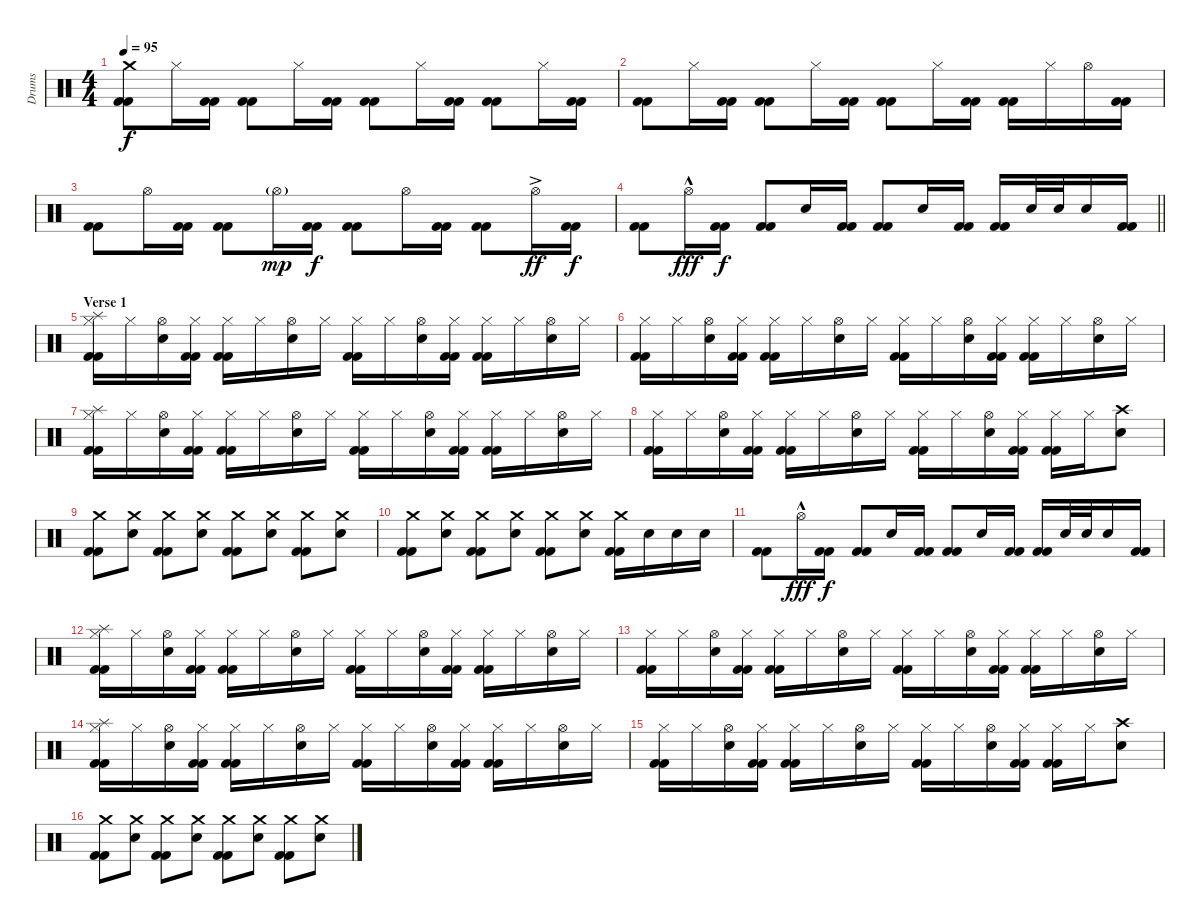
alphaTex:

\track ("Drums" "Drums") {instrument percussion}
\staff {score}
\articulation defaults
\ts (4 4)
\tempo 95
\clef neutral
\ks c
("Crash medium (hit)" "Kick (hit) 2" "Kick (hit) 2").8{dy f} "Hi-Hat (closed)".16 ("Kick (hit) 2" "Kick (hit) 2").16 ("Kick (hit) 2" "Kick (hit) 2").8 "Hi-Hat (closed)".16 ("Kick (hit) 2" "Kick (hit) 2").16 ("Kick (hit) 2" "Kick (hit) 2").8 "Hi-Hat (closed)".16 ("Kick (hit) 2" "Kick (hit) 2").16 ("Kick (hit) 2" "Kick (hit) 2").8 "Hi-Hat (closed)".16 ("Kick (hit) 2" "Kick (hit) 2").16 |
("Kick (hit) 2" "Kick (hit) 2").8 "Hi-Hat (closed)".16 ("Kick (hit) 2" "Kick (hit) 2").16 ("Kick (hit) 2" "Kick (hit) 2").8 "Hi-Hat (closed)".16 ("Kick (hit) 2" "Kick (hit) 2").16 ("Kick (hit) 2" "Kick (hit) 2").8 "Hi-Hat (closed)".16 ("Kick (hit) 2" "Kick (hit) 2").16 ("Kick (hit) 2" "Kick (hit) 2").16 "Hi-Hat (closed)".16 "Hi-Hat (open)".16 ("Kick (hit) 2" "Kick (hit) 2").16 |
("Kick (hit) 2" "Kick (hit) 2").8 "Hi-Hat (open)".16 ("Kick (hit) 2" "Kick (hit) 2").16 ("Kick (hit) 2" "Kick (hit) 2").8 "Hi-Hat (open)"{g}.16{dy mp} ("Kick (hit) 2" "Kick (hit) 2").16{dy f} ("Kick (hit) 2" "Kick (hit) 2").8 "Hi-Hat (open)".16 ("Kick (hit) 2" "Kick (hit) 2").16 ("Kick (hit) 2" "Kick (hit) 2").8 "Hi-Hat (open)"{ac}.16{dy ff} ("Kick (hit) 2" "Kick (hit) 2").16{dy f} |
\barLineRight lightlight
("Kick (hit) 2" "Kick (hit) 2").8 "Hi-Hat (open)"{hac}.16{dy fff} ("Kick (hit) 2" "Kick (hit) 2").16{dy f} ("Kick (hit) 2" "Kick (hit) 2").8 "Electric Snare (hit)".16 ("Kick (hit) 2" "Kick (hit) 2").16 ("Kick (hit) 2" "Kick (hit) 2").8 "Electric Snare (hit)".16 ("Kick (hit) 2" "Kick (hit) 2").16 ("Kick (hit) 2" "Kick (hit) 2").16 "Electric Snare (hit)".32 "Electric Snare (hit)".32 "Electric Snare (hit)".16 ("Kick (hit) 2" "Kick (hit) 2").16 |
\section ("" "Verse 1")
("Splash (hit)" "Hi-Hat (closed)" "Kick (hit) 2" "Kick (hit) 2").16 "Hi-Hat (closed)".16 ("Hi-Hat (open)" "Electric Snare (hit)").16 ("Hi-Hat (closed)" "Kick (hit) 2" "Kick (hit) 2").16 ("Hi-Hat (closed)" "Kick (hit) 2" "Kick (hit) 2").16 "Hi-Hat (closed)".16 ("Hi-Hat (open)" "Electric Snare (hit)").16 "Hi-Hat (closed)".16 ("Hi-Hat (closed)" "Kick (hit) 2" "Kick (hit) 2").16 "Hi-Hat (closed)".16 ("Hi-Hat (open)" "Electric Snare (hit)").16 ("Hi-Hat (closed)" "Kick (hit) 2" "Kick (hit) 2").16 ("Hi-Hat (closed)" "Kick (hit) 2" "Kick (hit) 2").16 "Hi-Hat (closed)".16 ("Hi-Hat (open)" "Electric Snare (hit)").16 "Hi-Hat (closed)".16 |
("Hi-Hat (closed)" "Kick (hit) 2" "Kick (hit) 2").16 "Hi-Hat (closed)".16 ("Hi-Hat (open)" "Electric Snare (hit)").16 ("Hi-Hat (closed)" "Kick (hit) 2" "Kick (hit) 2").16 ("Hi-Hat (closed)" "Kick (hit) 2" "Kick (hit) 2").16 "Hi-Hat (closed)".16 ("Hi-Hat (open)" "Electric Snare (hit)").16 "Hi-Hat (closed)".16 ("Hi-Hat (closed)" "Kick (hit) 2" "Kick (hit) 2").16 "Hi-Hat (closed)".16 ("Hi-Hat (open)" "Electric Snare (hit)").16 ("Hi-Hat (closed)" "Kick (hit) 2" "Kick (hit) 2").16 ("Hi-Hat (closed)" "Kick (hit) 2" "Kick (hit) 2").16 "Hi-Hat (closed)".16 ("Hi-Hat (open)" "Electric Snare (hit)").16 "Hi-Hat (closed)".16 |
("Splash (hit)" "Hi-Hat (closed)" "Kick (hit) 2" "Kick (hit) 2").16 "Hi-Hat (closed)".16 ("Hi-Hat (open)" "Electric Snare (hit)").16 ("Hi-Hat (closed)" "Kick (hit) 2" "Kick (hit) 2").16 ("Hi-Hat (closed)" "Kick (hit) 2" "Kick (hit) 2").16 "Hi-Hat (closed)".16 ("Hi-Hat (open)" "Electric Snare (hit)").16 "Hi-Hat (closed)".16 ("Hi-Hat (closed)" "Kick (hit) 2" "Kick (hit) 2").16 "Hi-Hat (closed)".16 ("Hi-Hat (open)" "Electric Snare (hit)").16 ("Hi-Hat (closed)" "Kick (hit) 2" "Kick (hit) 2").16 ("Hi-Hat (closed)" "Kick (hit) 2" "Kick (hit) 2").16 "Hi-Hat (closed)".16 ("Hi-Hat (open)" "Electric Snare (hit)").16 "Hi-Hat (closed)".16 |
("Hi-Hat (closed)" "Kick (hit) 2" "Kick (hit) 2").16 "Hi-Hat (closed)".16 ("Hi-Hat (open)" "Electric Snare (hit)").16 ("Hi-Hat (closed)" "Kick (hit) 2" "Kick (hit) 2").16 ("Hi-Hat (closed)" "Kick (hit) 2" "Kick (hit) 2").16 "Hi-Hat (closed)".16 ("Hi-Hat (open)" "Electric Snare (hit)").16 "Hi-Hat (closed)".16 ("Hi-Hat (closed)" "Kick (hit) 2" "Kick (hit) 2").16 "Hi-Hat (closed)".16 ("Hi-Hat (open)" "Electric Snare (hit)").16 ("Hi-Hat (closed)" "Kick (hit) 2" "Kick (hit) 2").16 ("Hi-Hat (closed)" "Kick (hit) 2" "Kick (hit) 2").16 "Hi-Hat (closed)".16 ("Crash high (hit)" "Electric Snare (hit)").8 |
("Crash medium (hit)" "Kick (hit) 2" "Kick (hit) 2").8 ("Crash medium (hit)" "Electric Snare (hit)").8 ("Crash medium (hit)" "Kick (hit) 2" "Kick (hit) 2").8 ("Crash medium (hit)" "Electric Snare (hit)").8 ("Crash medium (hit)" "Kick (hit) 2" "Kick (hit) 2").8 ("Crash medium (hit)" "Electric Snare (hit)").8 ("Crash medium (hit)" "Kick (hit) 2" "Kick (hit) 2").8 ("Crash medium (hit)" "Electric Snare (hit)").8 |
("Crash medium (hit)" "Kick (hit) 2" "Kick (hit) 2").8 ("Crash medium (hit)" "Electric Snare (hit)").8 ("Crash medium (hit)" "Kick (hit) 2" "Kick (hit) 2").8 ("Crash medium (hit)" "Electric Snare (hit)").8 ("Crash medium (hit)" "Kick (hit) 2" "Kick (hit) 2").8 ("Crash medium (hit)" "Electric Snare (hit)").8 ("Crash medium (hit)" "Kick (hit) 2" "Kick (hit) 2").16 "Electric Snare (hit)".16 "Electric Snare (hit)".16 "Electric Snare (hit)".16 |
("Kick (hit) 2" "Kick (hit) 2").8 "Hi-Hat (open)"{hac}.16{dy fff} ("Kick (hit) 2" "Kick (hit) 2").16{dy f} ("Kick (hit) 2" "Kick (hit) 2").8 "Electric Snare (hit)".16 ("Kick (hit) 2" "Kick (hit) 2").16 ("Kick (hit) 2" "Kick (hit) 2").8 "Electric Snare (hit)".16 ("Kick (hit) 2" "Kick (hit) 2").16 ("Kick (hit) 2" "Kick (hit) 2").16 "Electric Snare (hit)".32 "Electric Snare (hit)".32 "Electric Snare (hit)".16 ("Kick (hit) 2" "Kick (hit) 2").16 |
("Splash (hit)" "Hi-Hat (closed)" "Kick (hit) 2" "Kick (hit) 2").16 "Hi-Hat (closed)".16 ("Hi-Hat (open)" "Electric Snare (hit)").16 ("Hi-Hat (closed)" "Kick (hit) 2" "Kick (hit) 2").16 ("Hi-Hat (closed)" "Kick (hit) 2" "Kick (hit) 2").16 "Hi-Hat (closed)".16 ("Hi-Hat (open)" "Electric Snare (hit)").16 "Hi-Hat (closed)".16 ("Hi-Hat (closed)" "Kick (hit) 2" "Kick (hit) 2").16 "Hi-Hat (closed)".16 ("Hi-Hat (open)" "Electric Snare (hit)").16 ("Hi-Hat (closed)" "Kick (hit) 2" "Kick (hit) 2").16 ("Hi-Hat (closed)" "Kick (hit) 2" "Kick (hit) 2").16 "Hi-Hat (closed)".16 ("Hi-Hat (open)" "Electric Snare (hit)").16 "Hi-Hat (closed)".16 |
("Hi-Hat (closed)" "Kick (hit) 2" "Kick (hit) 2").16 "Hi-Hat (closed)".16 ("Hi-Hat (open)" "Electric Snare (hit)").16 ("Hi-Hat (closed)" "Kick (hit) 2" "Kick (hit) 2").16 ("Hi-Hat (closed)" "Kick (hit) 2" "Kick (hit) 2").16 "Hi-Hat (closed)".16 ("Hi-Hat (open)" "Electric Snare (hit)").16 "Hi-Hat (closed)".16 ("Hi-Hat (closed)" "Kick (hit) 2" "Kick (hit) 2").16 "Hi-Hat (closed)".16 ("Hi-Hat (open)" "Electric Snare (hit)").16 ("Hi-Hat (closed)" "Kick (hit) 2" "Kick (hit) 2").16 ("Hi-Hat (closed)" "Kick (hit) 2" "Kick (hit) 2").16 "Hi-Hat (closed)".16 ("Hi-Hat (open)" "Electric Snare (hit)").16 "Hi-Hat (closed)".16 |
("Splash (hit)" "Hi-Hat (closed)" "Kick (hit) 2" "Kick (hit) 2").16 "Hi-Hat (closed)".16 ("Hi-Hat (open)" "Electric Snare (hit)").16 ("Hi-Hat (closed)" "Kick (hit) 2" "Kick (hit) 2").16 ("Hi-Hat (closed)" "Kick (hit) 2" "Kick (hit) 2").16 "Hi-Hat (closed)".16 ("Hi-Hat (open)" "Electric Snare (hit)").16 "Hi-Hat (closed)".16 ("Hi-Hat (closed)" "Kick (hit) 2" "Kick (hit) 2").16 "Hi-Hat (closed)".16 ("Hi-Hat (open)" "Electric Snare (hit)").16 ("Hi-Hat (closed)" "Kick (hit) 2" "Kick (hit) 2").16 ("Hi-Hat (closed)" "Kick (hit) 2" "Kick (hit) 2").16 "Hi-Hat (closed)".16 ("Hi-Hat (open)" "Electric Snare (hit)").16 "Hi-Hat (closed)".16 |
("Hi-Hat (closed)" "Kick (hit) 2" "Kick (hit) 2").16 "Hi-Hat (closed)".16 ("Hi-Hat (open)" "Electric Snare (hit)").16 ("Hi-Hat (closed)" "Kick (hit) 2" "Kick (hit) 2").16 ("Hi-Hat (closed)" "Kick (hit) 2" "Kick (hit) 2").16 "Hi-Hat (closed)".16 ("Hi-Hat (open)" "Electric Snare (hit)").16 "Hi-Hat (closed)".16 ("Hi-Hat (closed)" "Kick (hit) 2" "Kick (hit) 2").16 "Hi-Hat (closed)".16 ("Hi-Hat (open)" "Electric Snare (hit)").16 ("Hi-Hat (closed)" "Kick (hit) 2" "Kick (hit) 2").16 ("Hi-Hat (closed)" "Kick (hit) 2" "Kick (hit) 2").16 "Hi-Hat (closed)".16 ("Crash high (hit)" "Electric Snare (hit)").8 |
("Crash medium (hit)" "Kick (hit) 2" "Kick (hit) 2").8 ("Crash medium (hit)" "Electric Snare (hit)").8 ("Crash medium (hit)" "Kick (hit) 2" "Kick (hit) 2").8 ("Crash medium (hit)" "Electric Snare (hit)").8 ("Crash medium (hit)" "Kick (hit) 2" "Kick (hit) 2").8 ("Crash medium (hit)" "Electric Snare (hit)").8 ("Crash medium (hit)" "Kick (hit) 2" "Kick (hit) 2").8 ("Crash medium (hit)" "Electric Snare (hit)").8
